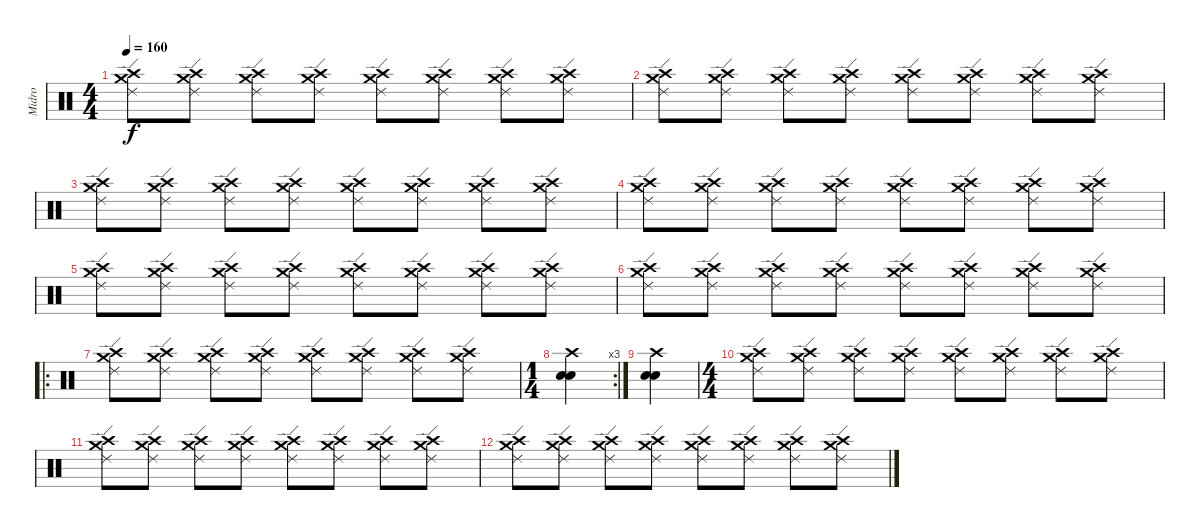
\track ("Midro" "Midro") {instrument percussion}
\staff {score}
\articulation defaults
\ts (4 4)
\tempo 160
\clef neutral
\ks c
("Ride (edge) 2" "Crash medium (hit)" "Crash high (hit)").8{dy f} ("Ride (edge) 2" "Crash medium (hit)" "Crash high (hit)").8 ("Ride (edge) 2" "Crash medium (hit)" "Crash high (hit)").8 ("Ride (edge) 2" "Crash medium (hit)" "Crash high (hit)").8 ("Ride (edge) 2" "Crash medium (hit)" "Crash high (hit)").8 ("Ride (edge) 2" "Crash medium (hit)" "Crash high (hit)").8 ("Ride (edge) 2" "Crash medium (hit)" "Crash high (hit)").8 ("Ride (edge) 2" "Crash medium (hit)" "Crash high (hit)").8 |
("Ride (edge) 2" "Crash medium (hit)" "Crash high (hit)").8 ("Ride (edge) 2" "Crash medium (hit)" "Crash high (hit)").8 ("Ride (edge) 2" "Crash medium (hit)" "Crash high (hit)").8 ("Ride (edge) 2" "Crash medium (hit)" "Crash high (hit)").8 ("Ride (edge) 2" "Crash medium (hit)" "Crash high (hit)").8 ("Ride (edge) 2" "Crash medium (hit)" "Crash high (hit)").8 ("Ride (edge) 2" "Crash medium (hit)" "Crash high (hit)").8 ("Ride (edge) 2" "Crash medium (hit)" "Crash high (hit)").8 |
("Ride (edge) 2" "Crash medium (hit)" "Crash high (hit)").8 ("Ride (edge) 2" "Crash medium (hit)" "Crash high (hit)").8 ("Ride (edge) 2" "Crash medium (hit)" "Crash high (hit)").8 ("Ride (edge) 2" "Crash medium (hit)" "Crash high (hit)").8 ("Ride (edge) 2" "Crash medium (hit)" "Crash high (hit)").8 ("Ride (edge) 2" "Crash medium (hit)" "Crash high (hit)").8 ("Ride (edge) 2" "Crash medium (hit)" "Crash high (hit)").8 ("Ride (edge) 2" "Crash medium (hit)" "Crash high (hit)").8 |
("Ride (edge) 2" "Crash medium (hit)" "Crash high (hit)").8 ("Ride (edge) 2" "Crash medium (hit)" "Crash high (hit)").8 ("Ride (edge) 2" "Crash medium (hit)" "Crash high (hit)").8 ("Ride (edge) 2" "Crash medium (hit)" "Crash high (hit)").8 ("Ride (edge) 2" "Crash medium (hit)" "Crash high (hit)").8 ("Ride (edge) 2" "Crash medium (hit)" "Crash high (hit)").8 ("Ride (edge) 2" "Crash medium (hit)" "Crash high (hit)").8 ("Ride (edge) 2" "Crash medium (hit)" "Crash high (hit)").8 |
("Ride (edge) 2" "Crash medium (hit)" "Crash high (hit)").8 ("Ride (edge) 2" "Crash medium (hit)" "Crash high (hit)").8 ("Ride (edge) 2" "Crash medium (hit)" "Crash high (hit)").8 ("Ride (edge) 2" "Crash medium (hit)" "Crash high (hit)").8 ("Ride (edge) 2" "Crash medium (hit)" "Crash high (hit)").8 ("Ride (edge) 2" "Crash medium (hit)" "Crash high (hit)").8 ("Ride (edge) 2" "Crash medium (hit)" "Crash high (hit)").8 ("Ride (edge) 2" "Crash medium (hit)" "Crash high (hit)").8 |
("Ride (edge) 2" "Crash medium (hit)" "Crash high (hit)").8 ("Ride (edge) 2" "Crash medium (hit)" "Crash high (hit)").8 ("Ride (edge) 2" "Crash medium (hit)" "Crash high (hit)").8 ("Ride (edge) 2" "Crash medium (hit)" "Crash high (hit)").8 ("Ride (edge) 2" "Crash medium (hit)" "Crash high (hit)").8 ("Ride (edge) 2" "Crash medium (hit)" "Crash high (hit)").8 ("Ride (edge) 2" "Crash medium (hit)" "Crash high (hit)").8 ("Ride (edge) 2" "Crash medium (hit)" "Crash high (hit)").8 |
\ro
("Ride (edge) 2" "Crash medium (hit)" "Crash high (hit)").8 ("Ride (edge) 2" "Crash medium (hit)" "Crash high (hit)").8 ("Ride (edge) 2" "Crash medium (hit)" "Crash high (hit)").8 ("Ride (edge) 2" "Crash medium (hit)" "Crash high (hit)").8 ("Ride (edge) 2" "Crash medium (hit)" "Crash high (hit)").8 ("Ride (edge) 2" "Crash medium (hit)" "Crash high (hit)").8 ("Ride (edge) 2" "Crash medium (hit)" "Crash high (hit)").8 ("Ride (edge) 2" "Crash medium (hit)" "Crash high (hit)").8 |
\rc 3
\ts (1 4)
("Crash high (hit)" "Electric Snare (hit)" "Snare (hit) 2").4 |
("Crash high (hit)" "Electric Snare (hit)" "Snare (hit) 2").4 |
\ts (4 4)
("Ride (edge) 2" "Crash medium (hit)" "Crash high (hit)").8 ("Ride (edge) 2" "Crash medium (hit)" "Crash high (hit)").8 ("Ride (edge) 2" "Crash medium (hit)" "Crash high (hit)").8 ("Ride (edge) 2" "Crash medium (hit)" "Crash high (hit)").8 ("Ride (edge) 2" "Crash medium (hit)" "Crash high (hit)").8 ("Ride (edge) 2" "Crash medium (hit)" "Crash high (hit)").8 ("Ride (edge) 2" "Crash medium (hit)" "Crash high (hit)").8 ("Ride (edge) 2" "Crash medium (hit)" "Crash high (hit)").8 |
("Ride (edge) 2" "Crash medium (hit)" "Crash high (hit)").8 ("Ride (edge) 2" "Crash medium (hit)" "Crash high (hit)").8 ("Ride (edge) 2" "Crash medium (hit)" "Crash high (hit)").8 ("Ride (edge) 2" "Crash medium (hit)" "Crash high (hit)").8 ("Ride (edge) 2" "Crash medium (hit)" "Crash high (hit)").8 ("Ride (edge) 2" "Crash medium (hit)" "Crash high (hit)").8 ("Ride (edge) 2" "Crash medium (hit)" "Crash high (hit)").8 ("Ride (edge) 2" "Crash medium (hit)" "Crash high (hit)").8 |
("Ride (edge) 2" "Crash medium (hit)" "Crash high (hit)").8 ("Ride (edge) 2" "Crash medium (hit)" "Crash high (hit)").8 ("Ride (edge) 2" "Crash medium (hit)" "Crash high (hit)").8 ("Ride (edge) 2" "Crash medium (hit)" "Crash high (hit)").8 ("Ride (edge) 2" "Crash medium (hit)" "Crash high (hit)").8 ("Ride (edge) 2" "Crash medium (hit)" "Crash high (hit)").8 ("Ride (edge) 2" "Crash medium (hit)" "Crash high (hit)").8 ("Ride (edge) 2" "Crash medium (hit)" "Crash high (hit)").8
